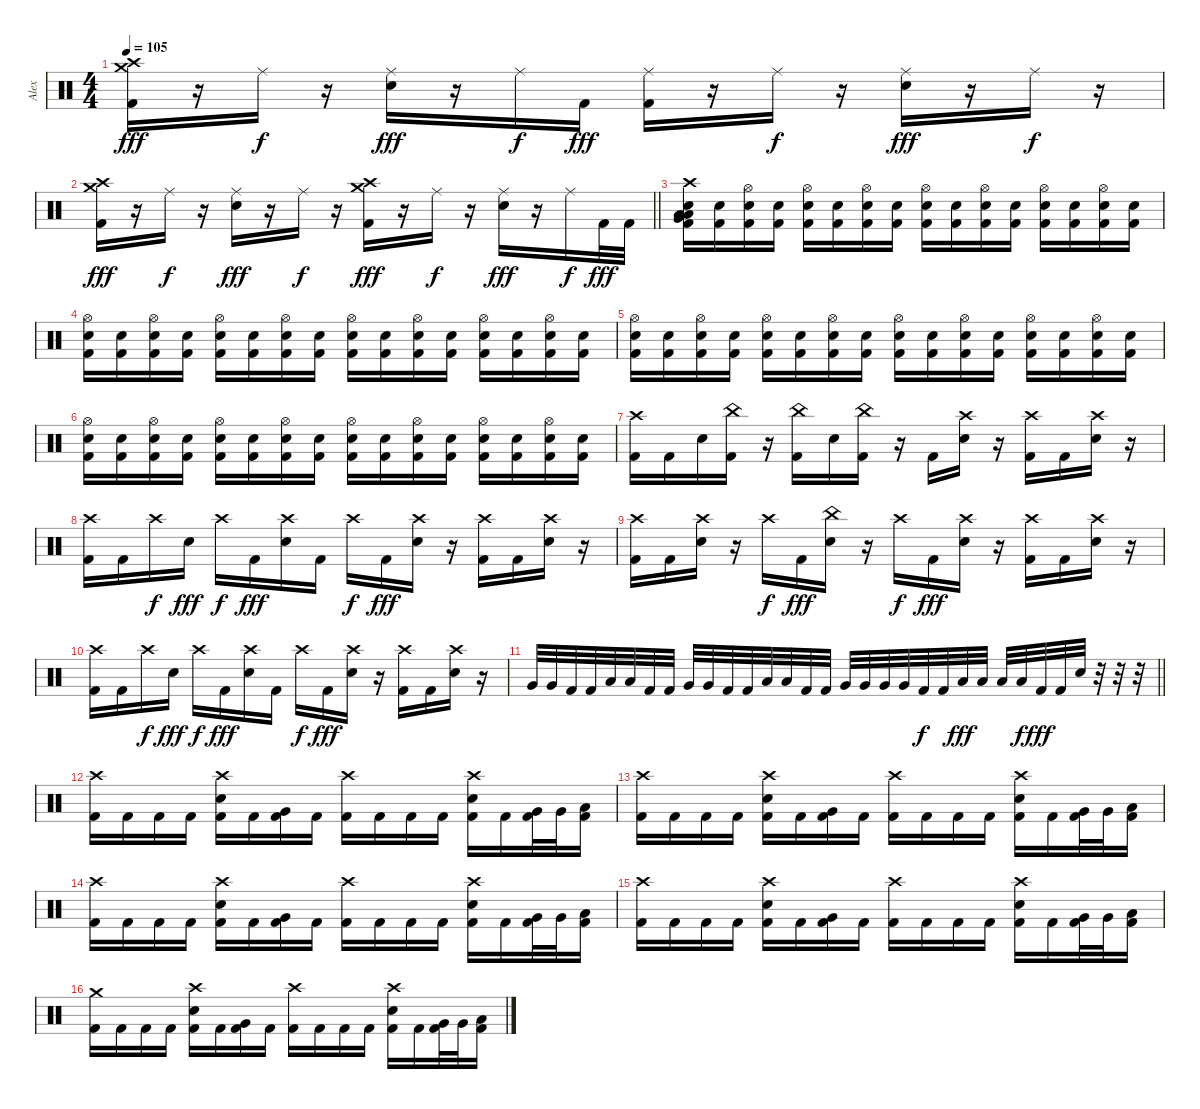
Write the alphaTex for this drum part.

\track ("Alex" "Alex") {instrument percussion}
\staff {score}
\articulation defaults
\ts (4 4)
\tempo 105
\clef neutral
\ks c
("Crash high (hit)" "Crash medium (hit)" "Kick (hit) 2").16{dy fff} r.16 "Ride (middle)".16{dy f} r.16 ("Ride (middle)" "Electric Snare (hit)").16{dy fff} r.16 "Ride (middle)".16{dy f} "Kick (hit) 2".16{dy fff} ("Ride (middle)" "Kick (hit) 2").16 r.16 "Ride (middle)".16{dy f} r.16 ("Ride (middle)" "Electric Snare (hit)").16{dy fff} r.16 "Ride (middle)".16{dy f} r.16 |
\barLineRight lightlight
("Crash high (hit)" "Crash medium (hit)" "Kick (hit) 2").16{dy fff} r.16 "Ride (middle)".16{dy f} r.16 ("Ride (middle)" "Electric Snare (hit)").16{dy fff} r.16 "Ride (middle)".16{dy f} r.16 ("Crash high (hit)" "Crash medium (hit)" "Kick (hit) 2").16{dy fff} r.16 "Ride (middle)".16{dy f} r.16 ("Ride (middle)" "Electric Snare (hit)").16{dy fff} r.16 "Ride (middle)".16{dy f} "Kick (hit) 2".32{dy fff} "Kick (hit) 2".32 |
\section ("" "")
("Crash high (hit)" "Very Low Tom (hit)" "Low Floor Tom (hit)" "Low Floor Tom (hit)" "Electric Snare (hit)" "Kick (hit) 2").16 ("Electric Snare (hit)" "Kick (hit) 2").16 ("Hi-Hat (open)" "Electric Snare (hit)" "Kick (hit) 2").16 ("Electric Snare (hit)" "Kick (hit) 2").16 ("Hi-Hat (open)" "Electric Snare (hit)" "Kick (hit) 2").16 ("Electric Snare (hit)" "Kick (hit) 2").16 ("Hi-Hat (open)" "Electric Snare (hit)" "Kick (hit) 2").16 ("Electric Snare (hit)" "Kick (hit) 2").16 ("Hi-Hat (open)" "Electric Snare (hit)" "Kick (hit) 2").16 ("Electric Snare (hit)" "Kick (hit) 2").16 ("Hi-Hat (open)" "Electric Snare (hit)" "Kick (hit) 2").16 ("Electric Snare (hit)" "Kick (hit) 2").16 ("Hi-Hat (open)" "Electric Snare (hit)" "Kick (hit) 2").16 ("Electric Snare (hit)" "Kick (hit) 2").16 ("Hi-Hat (open)" "Electric Snare (hit)" "Kick (hit) 2").16 ("Electric Snare (hit)" "Kick (hit) 2").16 |
("Hi-Hat (open)" "Electric Snare (hit)" "Kick (hit) 2").16 ("Electric Snare (hit)" "Kick (hit) 2").16 ("Hi-Hat (open)" "Electric Snare (hit)" "Kick (hit) 2").16 ("Electric Snare (hit)" "Kick (hit) 2").16 ("Hi-Hat (open)" "Electric Snare (hit)" "Kick (hit) 2").16 ("Electric Snare (hit)" "Kick (hit) 2").16 ("Hi-Hat (open)" "Electric Snare (hit)" "Kick (hit) 2").16 ("Electric Snare (hit)" "Kick (hit) 2").16 ("Hi-Hat (open)" "Electric Snare (hit)" "Kick (hit) 2").16 ("Electric Snare (hit)" "Kick (hit) 2").16 ("Hi-Hat (open)" "Electric Snare (hit)" "Kick (hit) 2").16 ("Electric Snare (hit)" "Kick (hit) 2").16 ("Hi-Hat (open)" "Electric Snare (hit)" "Kick (hit) 2").16 ("Electric Snare (hit)" "Kick (hit) 2").16 ("Hi-Hat (open)" "Electric Snare (hit)" "Kick (hit) 2").16 ("Electric Snare (hit)" "Kick (hit) 2").16 |
("Hi-Hat (open)" "Electric Snare (hit)" "Kick (hit) 2").16 ("Electric Snare (hit)" "Kick (hit) 2").16 ("Hi-Hat (open)" "Electric Snare (hit)" "Kick (hit) 2").16 ("Electric Snare (hit)" "Kick (hit) 2").16 ("Hi-Hat (open)" "Electric Snare (hit)" "Kick (hit) 2").16 ("Electric Snare (hit)" "Kick (hit) 2").16 ("Hi-Hat (open)" "Electric Snare (hit)" "Kick (hit) 2").16 ("Electric Snare (hit)" "Kick (hit) 2").16 ("Hi-Hat (open)" "Electric Snare (hit)" "Kick (hit) 2").16 ("Electric Snare (hit)" "Kick (hit) 2").16 ("Hi-Hat (open)" "Electric Snare (hit)" "Kick (hit) 2").16 ("Electric Snare (hit)" "Kick (hit) 2").16 ("Hi-Hat (open)" "Electric Snare (hit)" "Kick (hit) 2").16 ("Electric Snare (hit)" "Kick (hit) 2").16 ("Hi-Hat (open)" "Electric Snare (hit)" "Kick (hit) 2").16 ("Electric Snare (hit)" "Kick (hit) 2").16 |
("Hi-Hat (open)" "Electric Snare (hit)" "Kick (hit) 2").16 ("Electric Snare (hit)" "Kick (hit) 2").16 ("Hi-Hat (open)" "Electric Snare (hit)" "Kick (hit) 2").16 ("Electric Snare (hit)" "Kick (hit) 2").16 ("Hi-Hat (open)" "Electric Snare (hit)" "Kick (hit) 2").16 ("Electric Snare (hit)" "Kick (hit) 2").16 ("Hi-Hat (open)" "Electric Snare (hit)" "Kick (hit) 2").16 ("Electric Snare (hit)" "Kick (hit) 2").16 ("Hi-Hat (open)" "Electric Snare (hit)" "Kick (hit) 2").16 ("Electric Snare (hit)" "Kick (hit) 2").16 ("Hi-Hat (open)" "Electric Snare (hit)" "Kick (hit) 2").16 ("Electric Snare (hit)" "Kick (hit) 2").16 ("Hi-Hat (open)" "Electric Snare (hit)" "Kick (hit) 2").16 ("Electric Snare (hit)" "Kick (hit) 2").16 ("Hi-Hat (open)" "Electric Snare (hit)" "Kick (hit) 2").16 ("Electric Snare (hit)" "Kick (hit) 2").16 |
("Crash high (hit)" "Kick (hit) 2").16 "Kick (hit) 2".16 "Electric Snare (hit)".16 ("China (hit)" "Kick (hit) 2").16 r.16 ("China (hit)" "Kick (hit) 2").16 "Electric Snare (hit)".16 ("China (hit)" "Kick (hit) 2").16 r.16 "Kick (hit) 2".16 ("Crash high (hit)" "Electric Snare (hit)").16 r.16 ("Crash high (hit)" "Kick (hit) 2").16 "Kick (hit) 2".16 ("Crash high (hit)" "Electric Snare (hit)").16 r.16 |
("Crash high (hit)" "Kick (hit) 2").16 "Kick (hit) 2".16 "Crash high (hit)".16{dy f} "Electric Snare (hit)".16{dy fff} "Crash high (hit)".16{dy f} "Kick (hit) 2".16{dy fff} ("Crash high (hit)" "Electric Snare (hit)").16 "Kick (hit) 2".16 "Crash high (hit)".16{dy f} "Kick (hit) 2".16{dy fff} ("Crash high (hit)" "Electric Snare (hit)").16 r.16 ("Crash high (hit)" "Kick (hit) 2").16 "Kick (hit) 2".16 ("Crash high (hit)" "Electric Snare (hit)").16 r.16 |
("Crash high (hit)" "Kick (hit) 2").16 "Kick (hit) 2".16 ("Crash high (hit)" "Electric Snare (hit)").16 r.16 "Crash high (hit)".16{dy f} "Kick (hit) 2".16{dy fff} ("China (hit)" "Electric Snare (hit)").16 r.16 "Crash high (hit)".16{dy f} "Kick (hit) 2".16{dy fff} ("Crash high (hit)" "Electric Snare (hit)").16 r.16 ("Crash high (hit)" "Kick (hit) 2").16 "Kick (hit) 2".16 ("Crash high (hit)" "Electric Snare (hit)").16 r.16 |
("Crash high (hit)" "Kick (hit) 2").16 "Kick (hit) 2".16 "Crash high (hit)".16{dy f} "Electric Snare (hit)".16{dy fff} "Crash high (hit)".16{dy f} "Kick (hit) 2".16{dy fff} ("Crash high (hit)" "Electric Snare (hit)").16 "Kick (hit) 2".16 "Crash high (hit)".16{dy f} "Kick (hit) 2".16{dy fff} ("Crash high (hit)" "Electric Snare (hit)").16 r.16 ("Crash high (hit)" "Kick (hit) 2").16 "Kick (hit) 2".16 ("Crash high (hit)" "Electric Snare (hit)").16 r.16 |
\barLineRight lightlight "Very Low Tom (hit)".32 "Very Low Tom (hit)".32 "Kick (hit) 2".32 "Kick (hit) 2".32 "Low Floor Tom (hit)".32 "Low Floor Tom (hit)".32 "Kick (hit) 2".32 "Kick (hit) 2".32 "Very Low Tom (hit)".32 "Very Low Tom (hit)".32 "Kick (hit) 2".32 "Kick (hit) 2".32 "Low Floor Tom (hit)".32 "Low Floor Tom (hit)".32 "Kick (hit) 2".32 "Kick (hit) 2".32 "Very Low Tom (hit)".32 "Very Low Tom (hit)".32 "Very Low Tom (hit)".32 "Very Low Tom (hit)".32 "Kick (hit) 2".32{dy f} "Kick (hit) 2".32 "Low Floor Tom (hit)".32{dy fff} "Low Floor Tom (hit)".32 "Low Floor Tom (hit)".32 "Low Floor Tom (hit)".32{dy f} "Kick (hit) 2".32{dy fff} "Kick (hit) 2".32 "Electric Snare (hit)".32
r.32 r.32 r.32 |
\section ("" "")
("Crash high (hit)" "Kick (hit) 2").16 "Kick (hit) 2".16 "Kick (hit) 2".16 "Kick (hit) 2".16 ("Crash high (hit)" "Electric Snare (hit)" "Kick (hit) 2").16 "Kick (hit) 2".16 ("Very Low Tom (hit)" "Kick (hit) 2").16 "Kick (hit) 2".16 ("Crash high (hit)" "Kick (hit) 2").16 "Kick (hit) 2".16 "Kick (hit) 2".16 "Kick (hit) 2".16 ("Crash high (hit)" "Electric Snare (hit)" "Kick (hit) 2").16 "Kick (hit) 2".16 ("Very Low Tom (hit)" "Kick (hit) 2").32 "Very Low Tom (hit)".32 ("Low Floor Tom (hit)" "Kick (hit) 2").16 |
("Crash high (hit)" "Kick (hit) 2").16 "Kick (hit) 2".16 "Kick (hit) 2".16 "Kick (hit) 2".16 ("Crash high (hit)" "Electric Snare (hit)" "Kick (hit) 2").16 "Kick (hit) 2".16 ("Very Low Tom (hit)" "Kick (hit) 2").16 "Kick (hit) 2".16 ("Crash high (hit)" "Kick (hit) 2").16 "Kick (hit) 2".16 "Kick (hit) 2".16 "Kick (hit) 2".16 ("Crash high (hit)" "Electric Snare (hit)" "Kick (hit) 2").16 "Kick (hit) 2".16 ("Very Low Tom (hit)" "Kick (hit) 2").32 "Very Low Tom (hit)".32 ("Low Floor Tom (hit)" "Kick (hit) 2").16 |
("Crash high (hit)" "Kick (hit) 2").16 "Kick (hit) 2".16 "Kick (hit) 2".16 "Kick (hit) 2".16 ("Crash high (hit)" "Electric Snare (hit)" "Kick (hit) 2").16 "Kick (hit) 2".16 ("Very Low Tom (hit)" "Kick (hit) 2").16 "Kick (hit) 2".16 ("Crash high (hit)" "Kick (hit) 2").16 "Kick (hit) 2".16 "Kick (hit) 2".16 "Kick (hit) 2".16 ("Crash high (hit)" "Electric Snare (hit)" "Kick (hit) 2").16 "Kick (hit) 2".16 ("Very Low Tom (hit)" "Kick (hit) 2").32 "Very Low Tom (hit)".32 ("Low Floor Tom (hit)" "Kick (hit) 2").16 |
("Crash high (hit)" "Kick (hit) 2").16 "Kick (hit) 2".16 "Kick (hit) 2".16 "Kick (hit) 2".16 ("Crash high (hit)" "Electric Snare (hit)" "Kick (hit) 2").16 "Kick (hit) 2".16 ("Very Low Tom (hit)" "Kick (hit) 2").16 "Kick (hit) 2".16 ("Crash high (hit)" "Kick (hit) 2").16 "Kick (hit) 2".16 "Kick (hit) 2".16 "Kick (hit) 2".16 ("Crash high (hit)" "Electric Snare (hit)" "Kick (hit) 2").16 "Kick (hit) 2".16 ("Very Low Tom (hit)" "Kick (hit) 2").32 "Very Low Tom (hit)".32 ("Low Floor Tom (hit)" "Kick (hit) 2").16 |
("Crash medium (hit)" "Kick (hit) 2").16 "Kick (hit) 2".16 "Kick (hit) 2".16 "Kick (hit) 2".16 ("Crash high (hit)" "Electric Snare (hit)" "Kick (hit) 2").16 "Kick (hit) 2".16 ("Very Low Tom (hit)" "Kick (hit) 2").16 "Kick (hit) 2".16 ("Crash high (hit)" "Kick (hit) 2").16 "Kick (hit) 2".16 "Kick (hit) 2".16 "Kick (hit) 2".16 ("Crash high (hit)" "Electric Snare (hit)" "Kick (hit) 2").16 "Kick (hit) 2".16 ("Very Low Tom (hit)" "Kick (hit) 2").32 "Very Low Tom (hit)".32 ("Low Floor Tom (hit)" "Kick (hit) 2").16
